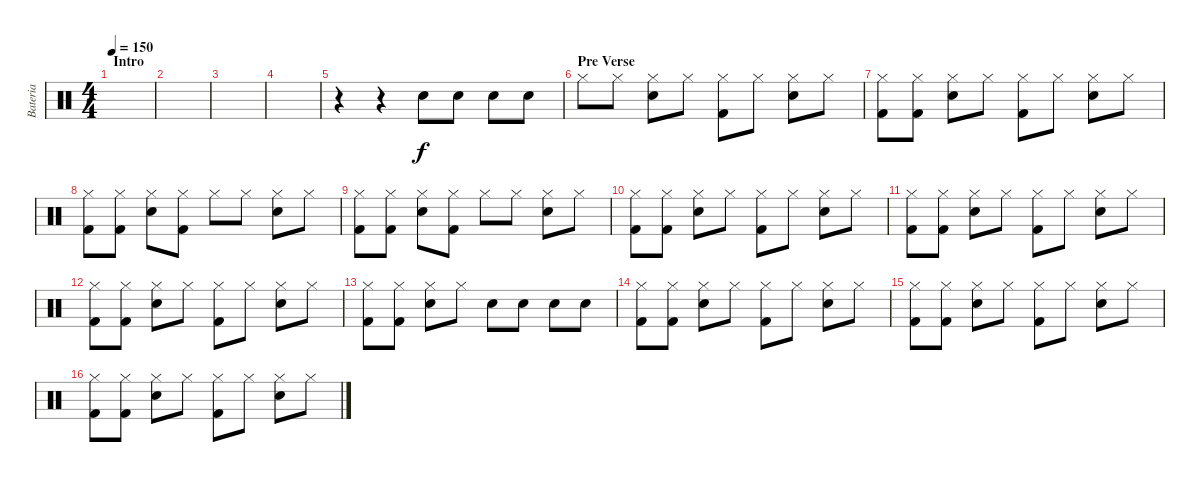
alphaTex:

\track ("Bateria" "Bateria") {instrument percussion}
\staff {score}
\articulation defaults
\ts (4 4)
\section ("" "Intro")
\tempo 150
\clef neutral
\ks c
|
|
|
|
r.4 r.4 "Snare (hit) 2".8 "Snare (hit) 2".8 "Snare (hit) 2".8 "Snare (hit) 2".8 |
\section ("" "Pre Verse")
"Hi-Hat (closed)".8 "Hi-Hat (closed)".8 ("Hi-Hat (closed)" "Snare (hit) 2").8 "Hi-Hat (closed)".8 ("Hi-Hat (closed)" "Kick (hit) 2").8 "Hi-Hat (closed)".8 ("Hi-Hat (closed)" "Snare (hit) 2").8 "Hi-Hat (closed)".8 |
("Hi-Hat (closed)" "Kick (hit) 2").8 ("Hi-Hat (closed)" "Kick (hit) 2").8 ("Hi-Hat (closed)" "Snare (hit) 2").8 "Hi-Hat (closed)".8 ("Hi-Hat (closed)" "Kick (hit) 2").8 "Hi-Hat (closed)".8 ("Hi-Hat (closed)" "Snare (hit) 2").8 "Hi-Hat (closed)".8 |
("Hi-Hat (closed)" "Kick (hit) 2").8 ("Hi-Hat (closed)" "Kick (hit) 2").8 ("Hi-Hat (closed)" "Snare (hit) 2").8 ("Hi-Hat (closed)" "Kick (hit) 2").8 "Hi-Hat (closed)".8 "Hi-Hat (closed)".8 ("Hi-Hat (closed)" "Snare (hit) 2").8 "Hi-Hat (closed)".8 |
("Hi-Hat (closed)" "Kick (hit) 2").8 ("Hi-Hat (closed)" "Kick (hit) 2").8 ("Hi-Hat (closed)" "Snare (hit) 2").8 ("Hi-Hat (closed)" "Kick (hit) 2").8 "Hi-Hat (closed)".8 "Hi-Hat (closed)".8 ("Hi-Hat (closed)" "Snare (hit) 2").8 "Hi-Hat (closed)".8 |
("Hi-Hat (closed)" "Kick (hit) 2").8 ("Hi-Hat (closed)" "Kick (hit) 2").8 ("Hi-Hat (closed)" "Snare (hit) 2").8 "Hi-Hat (closed)".8 ("Hi-Hat (closed)" "Kick (hit) 2").8 "Hi-Hat (closed)".8 ("Hi-Hat (closed)" "Snare (hit) 2").8 "Hi-Hat (closed)".8 |
("Hi-Hat (closed)" "Kick (hit) 2").8 ("Hi-Hat (closed)" "Kick (hit) 2").8 ("Hi-Hat (closed)" "Snare (hit) 2").8 "Hi-Hat (closed)".8 ("Hi-Hat (closed)" "Kick (hit) 2").8 "Hi-Hat (closed)".8 ("Hi-Hat (closed)" "Snare (hit) 2").8 "Hi-Hat (closed)".8 |
("Hi-Hat (closed)" "Kick (hit) 2").8 ("Hi-Hat (closed)" "Kick (hit) 2").8 ("Hi-Hat (closed)" "Snare (hit) 2").8 "Hi-Hat (closed)".8 ("Hi-Hat (closed)" "Kick (hit) 2").8 "Hi-Hat (closed)".8 ("Hi-Hat (closed)" "Snare (hit) 2").8 "Hi-Hat (closed)".8 |
("Hi-Hat (closed)" "Kick (hit) 2").8 ("Hi-Hat (closed)" "Kick (hit) 2").8 ("Hi-Hat (closed)" "Snare (hit) 2").8 "Hi-Hat (closed)".8 "Snare (hit) 2".8 "Snare (hit) 2".8 "Snare (hit) 2".8 "Snare (hit) 2".8 |
("Hi-Hat (closed)" "Kick (hit) 2").8 ("Hi-Hat (closed)" "Kick (hit) 2").8 ("Hi-Hat (closed)" "Snare (hit) 2").8 "Hi-Hat (closed)".8 ("Hi-Hat (closed)" "Kick (hit) 2").8 "Hi-Hat (closed)".8 ("Hi-Hat (closed)" "Snare (hit) 2").8 "Hi-Hat (closed)".8 |
("Hi-Hat (closed)" "Kick (hit) 2").8 ("Hi-Hat (closed)" "Kick (hit) 2").8 ("Hi-Hat (closed)" "Snare (hit) 2").8 "Hi-Hat (closed)".8 ("Hi-Hat (closed)" "Kick (hit) 2").8 "Hi-Hat (closed)".8 ("Hi-Hat (closed)" "Snare (hit) 2").8 "Hi-Hat (closed)".8 |
("Hi-Hat (closed)" "Kick (hit) 2").8 ("Hi-Hat (closed)" "Kick (hit) 2").8 ("Hi-Hat (closed)" "Snare (hit) 2").8 "Hi-Hat (closed)".8 ("Hi-Hat (closed)" "Kick (hit) 2").8 "Hi-Hat (closed)".8 ("Hi-Hat (closed)" "Snare (hit) 2").8 "Hi-Hat (closed)".8
